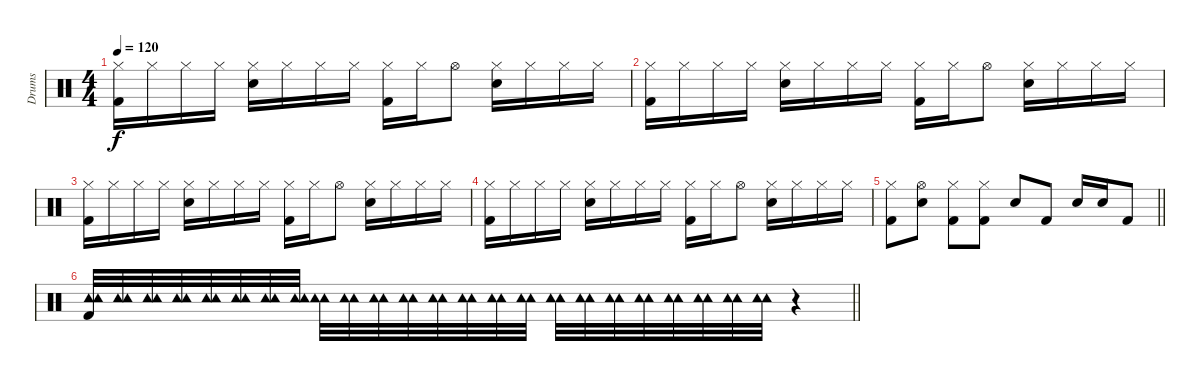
\track ("Drums" "Drums") {instrument percussion}
\staff
\articulation defaults
\ts (4 4)
\tempo 120
\clef neutral
\ks c
("Hi-Hat (closed)" "Kick (hit) 2").16{dy f} "Hi-Hat (closed)".16 "Hi-Hat (closed)".16 "Hi-Hat (closed)".16 ("Hi-Hat (closed)" "Snare (hit) 2").16 "Hi-Hat (closed)".16 "Hi-Hat (closed)".16 "Hi-Hat (closed)".16 ("Hi-Hat (closed)" "Kick (hit) 2").16 "Hi-Hat (closed)".16 "Hi-Hat (open)".8 ("Hi-Hat (closed)" "Snare (hit) 2").16 "Hi-Hat (closed)".16 "Hi-Hat (closed)".16 "Hi-Hat (closed)".16 |
("Hi-Hat (closed)" "Kick (hit) 2").16 "Hi-Hat (closed)".16 "Hi-Hat (closed)".16 "Hi-Hat (closed)".16 ("Hi-Hat (closed)" "Snare (hit) 2").16 "Hi-Hat (closed)".16 "Hi-Hat (closed)".16 "Hi-Hat (closed)".16 ("Hi-Hat (closed)" "Kick (hit) 2").16 "Hi-Hat (closed)".16 "Hi-Hat (open)".8 ("Hi-Hat (closed)" "Snare (hit) 2").16 "Hi-Hat (closed)".16 "Hi-Hat (closed)".16 "Hi-Hat (closed)".16 |
("Hi-Hat (closed)" "Kick (hit) 2").16 "Hi-Hat (closed)".16 "Hi-Hat (closed)".16 "Hi-Hat (closed)".16 ("Hi-Hat (closed)" "Snare (hit) 2").16 "Hi-Hat (closed)".16 "Hi-Hat (closed)".16 "Hi-Hat (closed)".16 ("Hi-Hat (closed)" "Kick (hit) 2").16 "Hi-Hat (closed)".16 "Hi-Hat (open)".8 ("Hi-Hat (closed)" "Snare (hit) 2").16 "Hi-Hat (closed)".16 "Hi-Hat (closed)".16 "Hi-Hat (closed)".16 |
("Hi-Hat (closed)" "Kick (hit) 2").16 "Hi-Hat (closed)".16 "Hi-Hat (closed)".16 "Hi-Hat (closed)".16 ("Hi-Hat (closed)" "Snare (hit) 2").16 "Hi-Hat (closed)".16 "Hi-Hat (closed)".16 "Hi-Hat (closed)".16 ("Hi-Hat (closed)" "Kick (hit) 2").16 "Hi-Hat (closed)".16 "Hi-Hat (open)".8 ("Hi-Hat (closed)" "Snare (hit) 2").16 "Hi-Hat (closed)".16 "Hi-Hat (closed)".16 "Hi-Hat (closed)".16 |
\barLineRight lightlight
("Hi-Hat (closed)" "Kick (hit) 2").8 ("Hi-Hat (open)" "Snare (hit) 2").8 ("Hi-Hat (closed)" "Kick (hit) 2").8 ("Hi-Hat (closed)" "Kick (hit) 2").8 "Snare (hit) 2".8 "Kick (hit) 2".8 "Snare (hit) 2".16 "Snare (hit) 2".16 "Kick (hit) 2".8 |
\barLineRight lightlight
("Tambourine (hit)" "Tambourine (hit)" "Kick (hit) 2").32 ("Tambourine (hit)" "Tambourine (hit)").32 ("Tambourine (hit)" "Tambourine (hit)").32 ("Tambourine (hit)" "Tambourine (hit)").32 ("Tambourine (hit)" "Tambourine (hit)").32 ("Tambourine (hit)" "Tambourine (hit)").32 ("Tambourine (hit)" "Tambourine (hit)").32 ("Tambourine (hit)" "Tambourine (hit)").32 ("Tambourine (hit)" "Tambourine (hit)").32 ("Tambourine (hit)" "Tambourine (hit)").32 ("Tambourine (hit)" "Tambourine (hit)").32 ("Tambourine (hit)" "Tambourine (hit)").32 ("Tambourine (hit)" "Tambourine (hit)").32 ("Tambourine (hit)" "Tambourine (hit)").32 ("Tambourine (hit)" "Tambourine (hit)").32 ("Tambourine (hit)" "Tambourine (hit)").32 ("Tambourine (hit)" "Tambourine (hit)").32 ("Tambourine (hit)" "Tambourine (hit)").32 ("Tambourine (hit)" "Tambourine (hit)").32 ("Tambourine (hit)" "Tambourine (hit)").32 ("Tambourine (hit)" "Tambourine (hit)").32 ("Tambourine (hit)" "Tambourine (hit)").32 ("Tambourine (hit)" "Tambourine (hit)").32 ("Tambourine (hit)" "Tambourine (hit)").32 r.4
